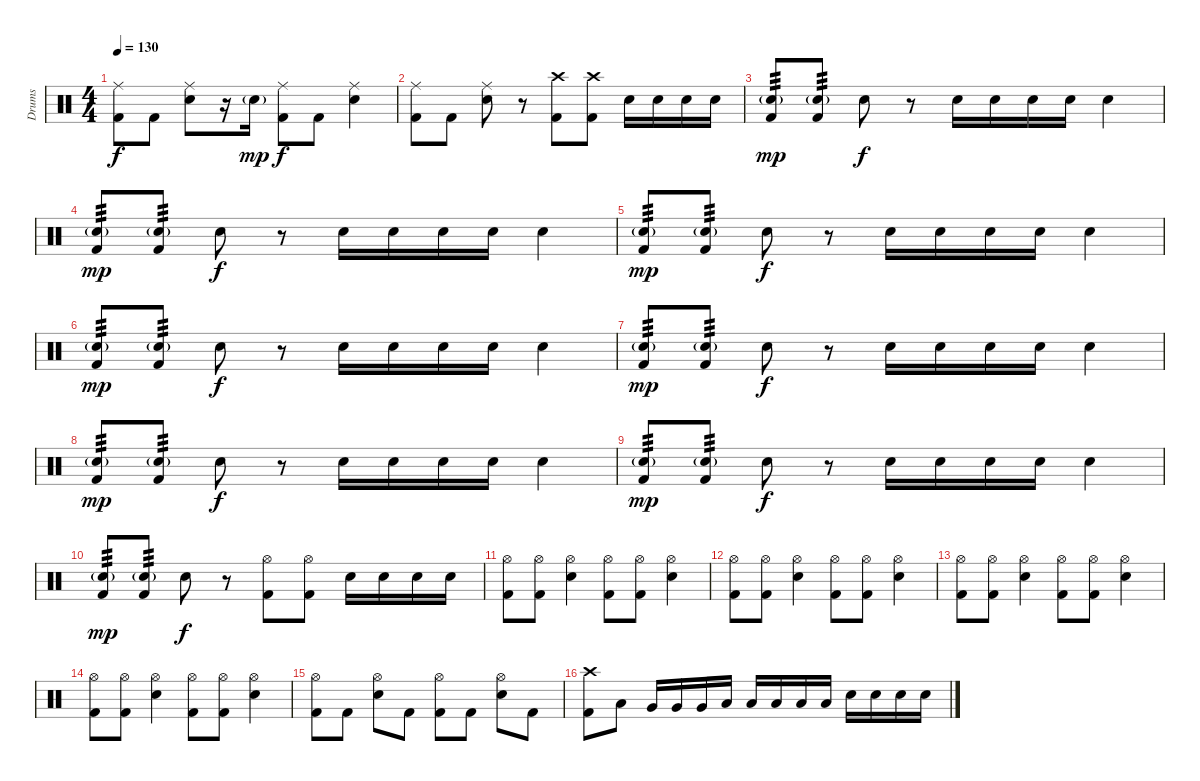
\track ("Drums" "Drums") {instrument percussion}
\staff {score}
\articulation defaults
\ts (4 4)
\tempo 130
\clef neutral
\ks c
("Ride (middle)" "Kick (hit) 2").8{dy f} "Kick (hit) 2".8 ("Ride (middle)" "Electric Snare (hit)").8 r.16 "Electric Snare (hit)"{g}.16{dy mp} ("Ride (middle)" "Kick (hit) 2").8{dy f} "Kick (hit) 2".8 ("Ride (middle)" "Electric Snare (hit)").4 |
("Ride (middle)" "Kick (hit) 2").8 "Kick (hit) 2".8 ("Ride (middle)" "Electric Snare (hit)").8 r.8 ("Crash high (hit)" "Kick (hit) 2").8 ("Crash high (hit)" "Kick (hit) 2").8 "Electric Snare (hit)".16 "Electric Snare (hit)".16 "Electric Snare (hit)".16 "Electric Snare (hit)".16 |
("Electric Snare (hit)"{g} "Kick (hit) 2").8{tp 3 dy mp} ("Electric Snare (hit)"{g} "Kick (hit) 2").8{tp 3} "Electric Snare (hit)".8{dy f} r.8 "Electric Snare (hit)".16 "Electric Snare (hit)".16 "Electric Snare (hit)".16 "Electric Snare (hit)".16 "Electric Snare (hit)".4 |
("Electric Snare (hit)"{g} "Kick (hit) 2").8{tp 3 dy mp} ("Electric Snare (hit)"{g} "Kick (hit) 2").8{tp 3} "Electric Snare (hit)".8{dy f} r.8 "Electric Snare (hit)".16 "Electric Snare (hit)".16 "Electric Snare (hit)".16 "Electric Snare (hit)".16 "Electric Snare (hit)".4 |
("Electric Snare (hit)"{g} "Kick (hit) 2").8{tp 3 dy mp} ("Electric Snare (hit)"{g} "Kick (hit) 2").8{tp 3} "Electric Snare (hit)".8{dy f} r.8 "Electric Snare (hit)".16 "Electric Snare (hit)".16 "Electric Snare (hit)".16 "Electric Snare (hit)".16 "Electric Snare (hit)".4 |
("Electric Snare (hit)"{g} "Kick (hit) 2").8{tp 3 dy mp} ("Electric Snare (hit)"{g} "Kick (hit) 2").8{tp 3} "Electric Snare (hit)".8{dy f} r.8 "Electric Snare (hit)".16 "Electric Snare (hit)".16 "Electric Snare (hit)".16 "Electric Snare (hit)".16 "Electric Snare (hit)".4 |
("Electric Snare (hit)"{g} "Kick (hit) 2").8{tp 3 dy mp} ("Electric Snare (hit)"{g} "Kick (hit) 2").8{tp 3} "Electric Snare (hit)".8{dy f} r.8 "Electric Snare (hit)".16 "Electric Snare (hit)".16 "Electric Snare (hit)".16 "Electric Snare (hit)".16 "Electric Snare (hit)".4 |
("Electric Snare (hit)"{g} "Kick (hit) 2").8{tp 3 dy mp} ("Electric Snare (hit)"{g} "Kick (hit) 2").8{tp 3} "Electric Snare (hit)".8{dy f} r.8 "Electric Snare (hit)".16 "Electric Snare (hit)".16 "Electric Snare (hit)".16 "Electric Snare (hit)".16 "Electric Snare (hit)".4 |
("Electric Snare (hit)"{g} "Kick (hit) 2").8{tp 3 dy mp} ("Electric Snare (hit)"{g} "Kick (hit) 2").8{tp 3} "Electric Snare (hit)".8{dy f} r.8 "Electric Snare (hit)".16 "Electric Snare (hit)".16 "Electric Snare (hit)".16 "Electric Snare (hit)".16 "Electric Snare (hit)".4 |
("Electric Snare (hit)"{g} "Kick (hit) 2").8{tp 3 dy mp} ("Electric Snare (hit)"{g} "Kick (hit) 2").8{tp 3} "Electric Snare (hit)".8{dy f} r.8 ("Hi-Hat (open)" "Kick (hit) 2").8 ("Hi-Hat (open)" "Kick (hit) 2").8 "Electric Snare (hit)".16 "Electric Snare (hit)".16 "Electric Snare (hit)".16 "Electric Snare (hit)".16 |
("Hi-Hat (open)" "Kick (hit) 2").8 ("Hi-Hat (open)" "Kick (hit) 2").8 ("Hi-Hat (open)" "Electric Snare (hit)").4 ("Hi-Hat (open)" "Kick (hit) 2").8 ("Hi-Hat (open)" "Kick (hit) 2").8 ("Hi-Hat (open)" "Electric Snare (hit)").4 |
("Hi-Hat (open)" "Kick (hit) 2").8 ("Hi-Hat (open)" "Kick (hit) 2").8 ("Hi-Hat (open)" "Electric Snare (hit)").4 ("Hi-Hat (open)" "Kick (hit) 2").8 ("Hi-Hat (open)" "Kick (hit) 2").8 ("Hi-Hat (open)" "Electric Snare (hit)").4 |
("Hi-Hat (open)" "Kick (hit) 2").8 ("Hi-Hat (open)" "Kick (hit) 2").8 ("Hi-Hat (open)" "Electric Snare (hit)").4 ("Hi-Hat (open)" "Kick (hit) 2").8 ("Hi-Hat (open)" "Kick (hit) 2").8 ("Hi-Hat (open)" "Electric Snare (hit)").4 |
("Hi-Hat (open)" "Kick (hit) 2").8 ("Hi-Hat (open)" "Kick (hit) 2").8 ("Hi-Hat (open)" "Electric Snare (hit)").4 ("Hi-Hat (open)" "Kick (hit) 2").8 ("Hi-Hat (open)" "Kick (hit) 2").8 ("Hi-Hat (open)" "Electric Snare (hit)").4 |
("Hi-Hat (open)" "Kick (hit) 2").8 "Kick (hit) 2".8 ("Hi-Hat (open)" "Electric Snare (hit)").8 "Kick (hit) 2".8 ("Hi-Hat (open)" "Kick (hit) 2").8 "Kick (hit) 2".8 ("Hi-Hat (open)" "Electric Snare (hit)").8 "Kick (hit) 2".8 |
("Crash high (hit)" "Kick (hit) 2").8 "Low Tom (hit)".8 "Very Low Tom (hit)".16 "Very Low Tom (hit)".16 "Very Low Tom (hit)".16 "Low Tom (hit)".16 "Low Tom (hit)".16 "Low Tom (hit)".16 "Low Tom (hit)".16 "Low Tom (hit)".16 "Electric Snare (hit)".16 "Electric Snare (hit)".16 "Electric Snare (hit)".16 "Electric Snare (hit)".16
